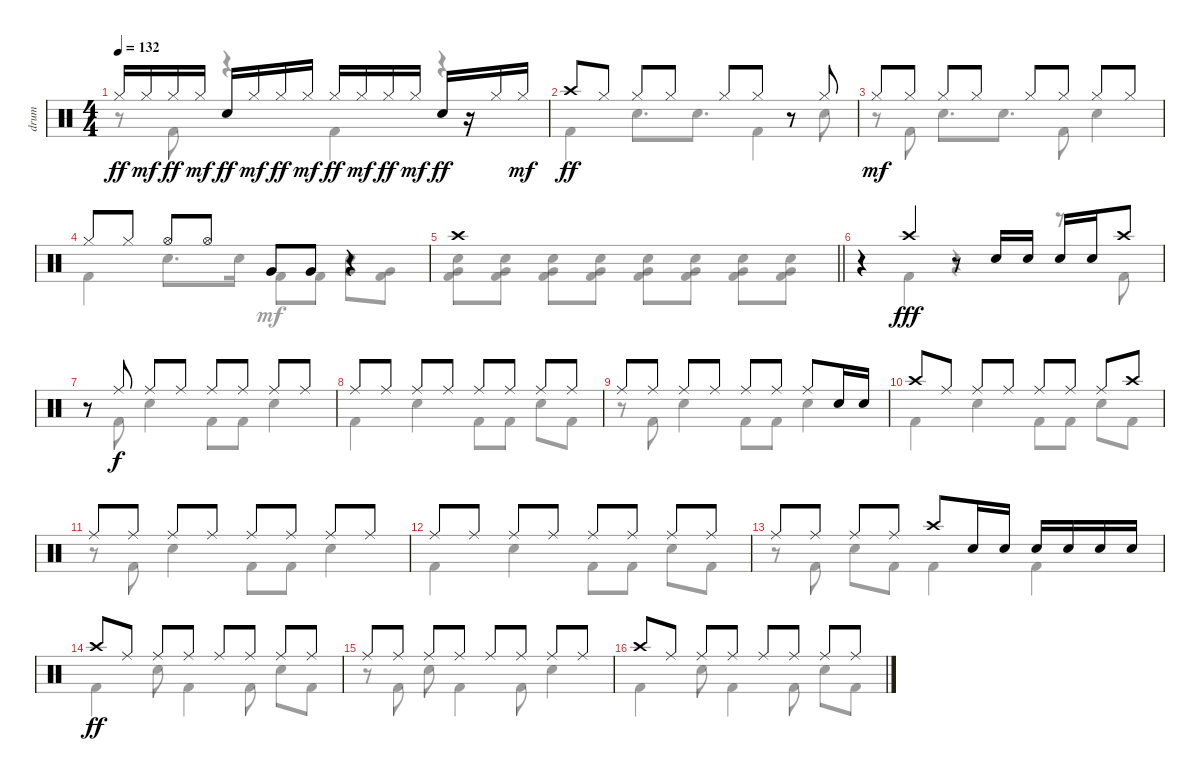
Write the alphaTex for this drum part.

\track ("drum" "drum") {instrument percussion}
\staff {score}
\articulation defaults
\voice
\ts (4 4)
\tempo 132
\clef neutral
\ks c "Hi-Hat (closed)".16{dy ff} "Hi-Hat (closed)".16{dy mf} "Hi-Hat (closed)".16{dy ff} "Hi-Hat (closed)".16{dy mf} "Snare (hit) 2".16{dy ff} "Hi-Hat (closed)".16{dy mf} "Hi-Hat (closed)".16{dy ff} "Hi-Hat (closed)".16{dy mf} "Hi-Hat (closed)".16{dy ff} "Hi-Hat (closed)".16{dy mf} "Hi-Hat (closed)".16{dy ff} "Hi-Hat (closed)".16{dy mf} "Snare (hit) 2".16{dy ff}
r.16 "Hi-Hat (closed)".16 "Hi-Hat (closed)".16{dy mf} |
"Crash high (hit)".8{dy ff} "Hi-Hat (closed)".8 "Hi-Hat (closed)".8 "Hi-Hat (closed)".8 "Hi-Hat (closed)".8 "Hi-Hat (closed)".8 r.8 "Hi-Hat (closed)".8 |
"Hi-Hat (closed)".8{dy mf} "Hi-Hat (closed)".8 "Hi-Hat (closed)".8 "Hi-Hat (closed)".8 "Hi-Hat (closed)".8 "Hi-Hat (closed)".8 "Hi-Hat (closed)".8 "Hi-Hat (closed)".8 |
"Hi-Hat (closed)".8 "Hi-Hat (closed)".8 "Hi-Hat (open)".8 "Hi-Hat (open)".8 "Very Low Tom (hit)".8 "Very Low Tom (hit)".8 r.4 |
\barLineRight lightlight "Crash high (hit)".1
|
r.4 "Crash high (hit)".4{dy fff} r.8 "Snare (hit) 2".16 "Snare (hit) 2".16 "Snare (hit) 2".16 "Snare (hit) 2".16 "Crash high (hit)".8 |
r.8 "Ride (middle)".8{dy f} "Ride (middle)".8 "Ride (middle)".8 "Ride (middle)".8 "Ride (middle)".8 "Ride (middle)".8 "Ride (middle)".8 |
"Ride (middle)".8 "Ride (middle)".8 "Ride (middle)".8 "Ride (middle)".8 "Ride (middle)".8 "Ride (middle)".8 "Ride (middle)".8 "Ride (middle)".8 |
"Ride (middle)".8 "Ride (middle)".8 "Ride (middle)".8 "Ride (middle)".8 "Ride (middle)".8 "Ride (middle)".8 "Ride (middle)".8 "Snare (hit) 2".16 "Snare (hit) 2".16 |
"Crash high (hit)".8 "Ride (middle)".8 "Ride (middle)".8 "Ride (middle)".8 "Ride (middle)".8 "Ride (middle)".8 "Ride (middle)".8 "Crash high (hit)".8 |
"Ride (middle)".8 "Ride (middle)".8 "Ride (middle)".8 "Ride (middle)".8 "Ride (middle)".8 "Ride (middle)".8 "Ride (middle)".8 "Ride (middle)".8 |
"Ride (middle)".8 "Ride (middle)".8 "Ride (middle)".8 "Ride (middle)".8 "Ride (middle)".8 "Ride (middle)".8 "Ride (middle)".8 "Ride (middle)".8 |
"Ride (middle)".8 "Ride (middle)".8 "Ride (middle)".8 "Ride (middle)".8 "Crash high (hit)".8 "Snare (hit) 2".16 "Snare (hit) 2".16 "Snare (hit) 2".16 "Snare (hit) 2".16 "Snare (hit) 2".16 "Snare (hit) 2".16 |
"Crash high (hit)".8{dy ff} "Ride (middle)".8 "Ride (middle)".8 "Ride (middle)".8 "Ride (middle)".8 "Ride (middle)".8 "Ride (middle)".8 "Ride (middle)".8 |
"Ride (middle)".8 "Ride (middle)".8 "Ride (middle)".8 "Ride (middle)".8 "Ride (middle)".8 "Ride (middle)".8 "Ride (middle)".8 "Ride (middle)".8 |
"Crash high (hit)".8 "Ride (middle)".8 "Ride (middle)".8 "Ride (middle)".8 "Ride (middle)".8 "Ride (middle)".8 "Ride (middle)".8 "Ride (middle)".8
\voice
\clef neutral
\ottava regular
\simile none
\ks c
r.8{dy ff} "Kick (hit) 2".8 r.4 "Kick (hit) 2".4 r.4 |
"Kick (hit) 2".4 "Snare (hit) 2".8{d} "Snare (hit) 2".8{d} "Kick (hit) 2".4 "Snare (hit) 2".8 |
r.8 "Kick (hit) 2".8 "Snare (hit) 2".8{d} "Snare (hit) 2".8{d} "Kick (hit) 2".8 "Snare (hit) 2".4 |
"Kick (hit) 2".4 "Snare (hit) 2".8{d} "Snare (hit) 2".16 "Kick (hit) 2".8{dy mf} "Kick (hit) 2".8 ("Very Low Tom (hit)" "Snare (hit) 2").8 ("Very Low Tom (hit)" "Kick (hit) 2").8 |
\barLineRight lightlight
("Kick (hit) 2" "Very Low Tom (hit)" "Snare (hit) 2").8 ("Kick (hit) 2" "Very Low Tom (hit)" "Snare (hit) 2").8 ("Kick (hit) 2" "Very Low Tom (hit)" "Snare (hit) 2").8 ("Kick (hit) 2" "Very Low Tom (hit)" "Snare (hit) 2").8 ("Kick (hit) 2" "Very Low Tom (hit)" "Snare (hit) 2").8 ("Kick (hit) 2" "Very Low Tom (hit)" "Snare (hit) 2").8 ("Kick (hit) 2" "Very Low Tom (hit)" "Snare (hit) 2").8 ("Kick (hit) 2" "Very Low Tom (hit)" "Snare (hit) 2").8 |
r.4 "Kick (hit) 2".4 r.4 r.8 "Kick (hit) 2".8 |
r.8 "Kick (hit) 2".8{dy f} "Snare (hit) 2".4 "Kick (hit) 2".8 "Kick (hit) 2".8 "Snare (hit) 2".4 |
"Kick (hit) 2".4 "Snare (hit) 2".4 "Kick (hit) 2".8 "Kick (hit) 2".8 "Snare (hit) 2".8 "Kick (hit) 2".8 |
r.8 "Kick (hit) 2".8 "Snare (hit) 2".4 "Kick (hit) 2".8 "Kick (hit) 2".8 "Snare (hit) 2".4 |
"Kick (hit) 2".4 "Snare (hit) 2".4 "Kick (hit) 2".8 "Kick (hit) 2".8 "Snare (hit) 2".8 "Kick (hit) 2".8 |
r.8 "Kick (hit) 2".8 "Snare (hit) 2".4 "Kick (hit) 2".8 "Kick (hit) 2".8 "Snare (hit) 2".4 |
"Kick (hit) 2".4 "Snare (hit) 2".4 "Kick (hit) 2".8 "Kick (hit) 2".8 "Snare (hit) 2".8 "Kick (hit) 2".8 |
r.8 "Kick (hit) 2".8 "Snare (hit) 2".8 "Kick (hit) 2".8 "Kick (hit) 2".4 "Kick (hit) 2".4 |
"Kick (hit) 2".4{dy ff} "Snare (hit) 2".8 "Kick (hit) 2".4 "Kick (hit) 2".8 "Snare (hit) 2".8 "Kick (hit) 2".8 |
r.8 "Kick (hit) 2".8 "Snare (hit) 2".8 "Kick (hit) 2".4 "Kick (hit) 2".8 "Snare (hit) 2".4 |
"Kick (hit) 2".4 "Snare (hit) 2".8 "Kick (hit) 2".4 "Kick (hit) 2".8 "Snare (hit) 2".8 "Kick (hit) 2".8
